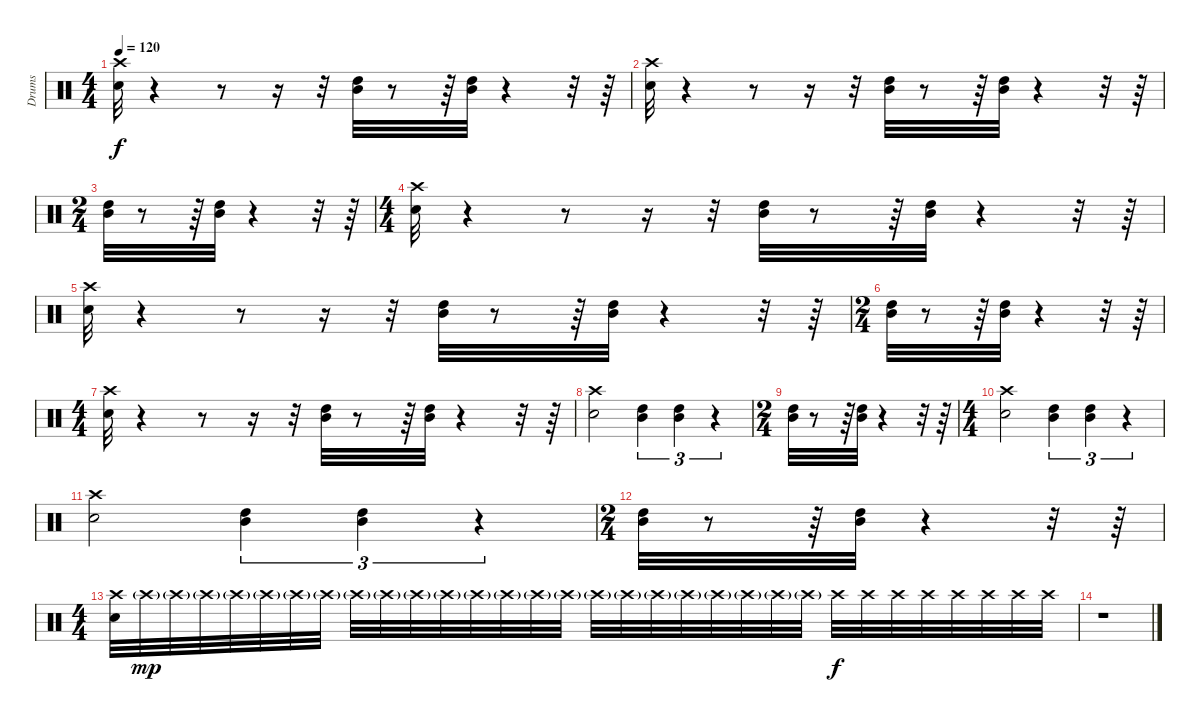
\track ("Drums" "Drums") {instrument percussion}
\staff {score}
\articulation defaults
\ts (4 4)
\tempo 120
\clef neutral
\ks c
("Snare (hit) 2" "Crash high (hit)").32{dy f} r.4 r.8 r.16 r.32 ("Mid Tom (hit)" "High Tom (hit)").32 r.8 r.64 ("Mid Tom (hit)" "High Tom (hit)").32 r.4 r.32 r.64 |
("Snare (hit) 2" "Crash high (hit)").32 r.4 r.8 r.16 r.32 ("Mid Tom (hit)" "High Tom (hit)").32 r.8 r.64 ("Mid Tom (hit)" "High Tom (hit)").32 r.4 r.32 r.64 |
\ts (2 4)
("Mid Tom (hit)" "High Tom (hit)").32 r.8 r.64 ("Mid Tom (hit)" "High Tom (hit)").32 r.4 r.32 r.64 |
\ts (4 4)
("Snare (hit) 2" "Crash high (hit)").32 r.4 r.8 r.16 r.32 ("Mid Tom (hit)" "High Tom (hit)").32 r.8 r.64 ("Mid Tom (hit)" "High Tom (hit)").32 r.4 r.32 r.64 |
("Snare (hit) 2" "Crash high (hit)").32 r.4 r.8 r.16 r.32 ("Mid Tom (hit)" "High Tom (hit)").32 r.8 r.64 ("Mid Tom (hit)" "High Tom (hit)").32 r.4 r.32 r.64 |
\ts (2 4)
("Mid Tom (hit)" "High Tom (hit)").32 r.8 r.64 ("Mid Tom (hit)" "High Tom (hit)").32 r.4 r.32 r.64 |
\ts (4 4)
("Snare (hit) 2" "Crash high (hit)").32 r.4 r.8 r.16 r.32 ("Mid Tom (hit)" "High Tom (hit)").32 r.8 r.64 ("Mid Tom (hit)" "High Tom (hit)").32 r.4 r.32 r.64 |
("Snare (hit) 2" "Crash high (hit)").2 ("High Tom (hit)" "Mid Tom (hit)").4{tu (3 2) volume 12} ("High Tom (hit)" "Mid Tom (hit)").4{tu (3 2)} r.4{tu (3 2)} |
\ts (2 4)
("Mid Tom (hit)" "High Tom (hit)").32 r.8 r.64 ("Mid Tom (hit)" "High Tom (hit)").32 r.4 r.32 r.64 |
\ts (4 4)
("Snare (hit) 2" "Crash high (hit)").2 ("High Tom (hit)" "Mid Tom (hit)").4{tu (3 2) volume 10} ("High Tom (hit)" "Mid Tom (hit)").4{tu (3 2)} r.4{tu (3 2)} |
("Snare (hit) 2" "Crash high (hit)").2 ("High Tom (hit)" "Mid Tom (hit)").4{tu (3 2) volume 5} ("High Tom (hit)" "Mid Tom (hit)").4{tu (3 2)} r.4{tu (3 2)} |
\ts (2 4)
("Mid Tom (hit)" "High Tom (hit)").32 r.8 r.64 ("Mid Tom (hit)" "High Tom (hit)").32 r.4 r.32 r.64 |
\ts (4 4)
("Snare (hit) 2" "Crash high (hit)").32 "Crash high (hit)"{g}.32{dy mp} "Crash high (hit)"{g}.32 "Crash high (hit)"{g}.32 "Crash high (hit)"{g}.32 "Crash high (hit)"{g}.32 "Crash high (hit)"{g}.32 "Crash high (hit)"{g}.32 "Crash high (hit)"{g}.32 "Crash high (hit)"{g}.32 "Crash high (hit)"{g}.32 "Crash high (hit)"{g}.32 "Crash high (hit)"{g}.32 "Crash high (hit)"{g}.32 "Crash high (hit)"{g}.32 "Crash high (hit)"{g}.32 "Crash high (hit)"{g}.32 "Crash high (hit)"{g}.32 "Crash high (hit)"{g}.32 "Crash high (hit)"{g}.32 "Crash high (hit)"{g}.32 "Crash high (hit)"{g}.32 "Crash high (hit)"{g}.32 "Crash high (hit)"{g}.32 "Crash high (hit)".32{dy f} "Crash high (hit)".32 "Crash high (hit)".32 "Crash high (hit)".32 "Crash high (hit)".32 "Crash high (hit)".32 "Crash high (hit)".32 "Crash high (hit)".32 |
r.1
